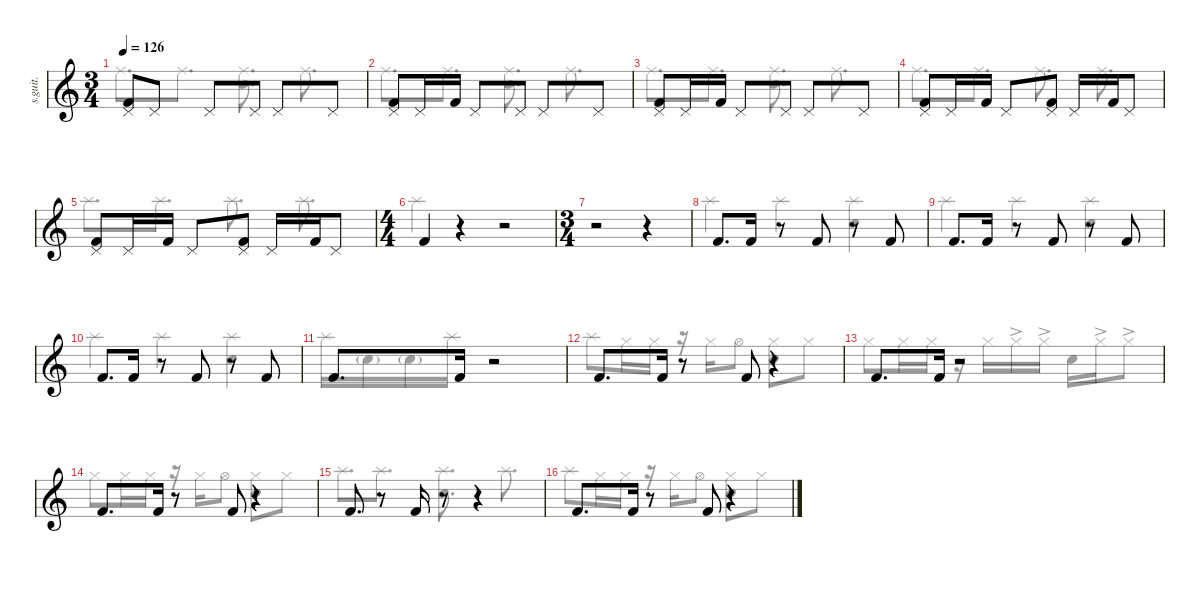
\defaultSystemsLayout 4
\hideDynamics
\bracketExtendMode nobrackets
\track ("Percussion" "s.guit.") {instrument percussion}
\staff {score}
\articulation defaults
\voice
\ts (3 4)
\tempo 126
\clef g2
\ks c
("Pedal Hi-Hat (hit)" "Kick (hit) 2").8{lyrics (0 "") lyrics (1 "") lyrics (2 "") lyrics (3 "") lyrics (4 "") dy mf} "Pedal Hi-Hat (hit)".8{lyrics (0 "") lyrics (1 "") lyrics (2 "") lyrics (3 "") lyrics (4 "")} "Pedal Hi-Hat (hit)".8{lyrics (0 "") lyrics (1 "") lyrics (2 "") lyrics (3 "") lyrics (4 "")} "Pedal Hi-Hat (hit)".8{lyrics (0 "") lyrics (1 "") lyrics (2 "") lyrics (3 "") lyrics (4 "")} "Pedal Hi-Hat (hit)".8{lyrics (0 "") lyrics (1 "") lyrics (2 "") lyrics (3 "") lyrics (4 "")} "Pedal Hi-Hat (hit)".8{lyrics (0 "") lyrics (1 "") lyrics (2 "") lyrics (3 "") lyrics (4 "")} |
("Pedal Hi-Hat (hit)" "Kick (hit) 2").8{lyrics (0 "") lyrics (1 "") lyrics (2 "") lyrics (3 "") lyrics (4 "")} "Pedal Hi-Hat (hit)".16{lyrics (0 "") lyrics (1 "") lyrics (2 "") lyrics (3 "") lyrics (4 "")} "Kick (hit) 2".16{lyrics (0 "") lyrics (1 "") lyrics (2 "") lyrics (3 "") lyrics (4 "")} "Pedal Hi-Hat (hit)".8{lyrics (0 "") lyrics (1 "") lyrics (2 "") lyrics (3 "") lyrics (4 "")} "Pedal Hi-Hat (hit)".8{lyrics (0 "") lyrics (1 "") lyrics (2 "") lyrics (3 "") lyrics (4 "")} "Pedal Hi-Hat (hit)".8{lyrics (0 "") lyrics (1 "") lyrics (2 "") lyrics (3 "") lyrics (4 "")} "Pedal Hi-Hat (hit)".8{lyrics (0 "") lyrics (1 "") lyrics (2 "") lyrics (3 "") lyrics (4 "")} |
("Pedal Hi-Hat (hit)" "Kick (hit) 2").8{lyrics (0 "") lyrics (1 "") lyrics (2 "") lyrics (3 "") lyrics (4 "")} "Pedal Hi-Hat (hit)".16{lyrics (0 "") lyrics (1 "") lyrics (2 "") lyrics (3 "") lyrics (4 "")} "Kick (hit) 2".16{lyrics (0 "") lyrics (1 "") lyrics (2 "") lyrics (3 "") lyrics (4 "")} "Pedal Hi-Hat (hit)".8{lyrics (0 "") lyrics (1 "") lyrics (2 "") lyrics (3 "") lyrics (4 "")} "Pedal Hi-Hat (hit)".8{lyrics (0 "") lyrics (1 "") lyrics (2 "") lyrics (3 "") lyrics (4 "")} "Pedal Hi-Hat (hit)".8{lyrics (0 "") lyrics (1 "") lyrics (2 "") lyrics (3 "") lyrics (4 "")} "Pedal Hi-Hat (hit)".8{lyrics (0 "") lyrics (1 "") lyrics (2 "") lyrics (3 "") lyrics (4 "")} |
("Pedal Hi-Hat (hit)" "Kick (hit) 2").8{lyrics (0 "") lyrics (1 "") lyrics (2 "") lyrics (3 "") lyrics (4 "")} "Pedal Hi-Hat (hit)".16{lyrics (0 "") lyrics (1 "") lyrics (2 "") lyrics (3 "") lyrics (4 "")} "Kick (hit) 2".16{lyrics (0 "") lyrics (1 "") lyrics (2 "") lyrics (3 "") lyrics (4 "")} "Pedal Hi-Hat (hit)".8{lyrics (0 "") lyrics (1 "") lyrics (2 "") lyrics (3 "") lyrics (4 "")} ("Pedal Hi-Hat (hit)" "Kick (hit) 2").8{lyrics (0 "") lyrics (1 "") lyrics (2 "") lyrics (3 "") lyrics (4 "")} "Pedal Hi-Hat (hit)".16{lyrics (0 "") lyrics (1 "") lyrics (2 "") lyrics (3 "") lyrics (4 "")} "Kick (hit) 2".16{lyrics (0 "") lyrics (1 "") lyrics (2 "") lyrics (3 "") lyrics (4 "")} "Pedal Hi-Hat (hit)".8{lyrics (0 "") lyrics (1 "") lyrics (2 "") lyrics (3 "") lyrics (4 "")} |
("Pedal Hi-Hat (hit)" "Kick (hit) 2").8{lyrics (0 "") lyrics (1 "") lyrics (2 "") lyrics (3 "") lyrics (4 "")} "Pedal Hi-Hat (hit)".16{lyrics (0 "") lyrics (1 "") lyrics (2 "") lyrics (3 "") lyrics (4 "")} "Kick (hit) 2".16{lyrics (0 "") lyrics (1 "") lyrics (2 "") lyrics (3 "") lyrics (4 "")} "Pedal Hi-Hat (hit)".8{lyrics (0 "") lyrics (1 "") lyrics (2 "") lyrics (3 "") lyrics (4 "")} ("Pedal Hi-Hat (hit)" "Kick (hit) 2").8{lyrics (0 "") lyrics (1 "") lyrics (2 "") lyrics (3 "") lyrics (4 "")} "Pedal Hi-Hat (hit)".16{lyrics (0 "") lyrics (1 "") lyrics (2 "") lyrics (3 "") lyrics (4 "")} "Kick (hit) 2".16{lyrics (0 "") lyrics (1 "") lyrics (2 "") lyrics (3 "") lyrics (4 "")} "Pedal Hi-Hat (hit)".8{lyrics (0 "") lyrics (1 "") lyrics (2 "") lyrics (3 "") lyrics (4 "")} |
\ts (4 4)
\beaming (8 2 2 2 2)
"Kick (hit) 2".4{lyrics (0 "") lyrics (1 "") lyrics (2 "") lyrics (3 "") lyrics (4 "")} r.4 r.2 |
\ts (3 4)
\beaming (8 2 2 2 2)
r.2 r.4 |
"Kick (hit) 2".8{d lyrics (0 "") lyrics (1 "") lyrics (2 "") lyrics (3 "") lyrics (4 "")} "Kick (hit) 2".16{lyrics (0 "") lyrics (1 "") lyrics (2 "") lyrics (3 "") lyrics (4 "")} r.8 "Kick (hit) 2".8{lyrics (0 "") lyrics (1 "") lyrics (2 "") lyrics (3 "") lyrics (4 "")} r.8 "Kick (hit) 2".8{lyrics (0 "") lyrics (1 "") lyrics (2 "") lyrics (3 "") lyrics (4 "")} |
"Kick (hit) 2".8{d lyrics (0 "") lyrics (1 "") lyrics (2 "") lyrics (3 "") lyrics (4 "")} "Kick (hit) 2".16{lyrics (0 "") lyrics (1 "") lyrics (2 "") lyrics (3 "") lyrics (4 "")} r.8 "Kick (hit) 2".8{lyrics (0 "") lyrics (1 "") lyrics (2 "") lyrics (3 "") lyrics (4 "")} r.8 "Kick (hit) 2".8{lyrics (0 "") lyrics (1 "") lyrics (2 "") lyrics (3 "") lyrics (4 "")} |
"Kick (hit) 2".8{d lyrics (0 "") lyrics (1 "") lyrics (2 "") lyrics (3 "") lyrics (4 "")} "Kick (hit) 2".16{lyrics (0 "") lyrics (1 "") lyrics (2 "") lyrics (3 "") lyrics (4 "")} r.8 "Kick (hit) 2".8{lyrics (0 "") lyrics (1 "") lyrics (2 "") lyrics (3 "") lyrics (4 "")} r.8 "Kick (hit) 2".8{lyrics (0 "") lyrics (1 "") lyrics (2 "") lyrics (3 "") lyrics (4 "")} |
"Kick (hit) 2".8{d lyrics (0 "") lyrics (1 "") lyrics (2 "") lyrics (3 "") lyrics (4 "")} "Kick (hit) 2".16{lyrics (0 "") lyrics (1 "") lyrics (2 "") lyrics (3 "") lyrics (4 "")} r.2 |
"Kick (hit) 2".8{d lyrics (0 "") lyrics (1 "") lyrics (2 "") lyrics (3 "") lyrics (4 "")} "Kick (hit) 2".16{lyrics (0 "") lyrics (1 "") lyrics (2 "") lyrics (3 "") lyrics (4 "")} r.8 "Kick (hit) 2".8{lyrics (0 "") lyrics (1 "") lyrics (2 "") lyrics (3 "") lyrics (4 "")} r.4 |
"Kick (hit) 2".8{d lyrics (0 "") lyrics (1 "") lyrics (2 "") lyrics (3 "") lyrics (4 "")} "Kick (hit) 2".16{lyrics (0 "") lyrics (1 "") lyrics (2 "") lyrics (3 "") lyrics (4 "")} r.2 |
"Kick (hit) 2".8{d lyrics (0 "") lyrics (1 "") lyrics (2 "") lyrics (3 "") lyrics (4 "")} "Kick (hit) 2".16{lyrics (0 "") lyrics (1 "") lyrics (2 "") lyrics (3 "") lyrics (4 "")} r.8 "Kick (hit) 2".8{lyrics (0 "") lyrics (1 "") lyrics (2 "") lyrics (3 "") lyrics (4 "")} r.4 |
"Kick (hit) 2".8{d lyrics (0 "") lyrics (1 "") lyrics (2 "") lyrics (3 "") lyrics (4 "")} r.8 "Kick (hit) 2".16{lyrics (0 "") lyrics (1 "") lyrics (2 "") lyrics (3 "") lyrics (4 "")} r.8 r.4 |
"Kick (hit) 2".8{d lyrics (0 "") lyrics (1 "") lyrics (2 "") lyrics (3 "") lyrics (4 "")} "Kick (hit) 2".16{lyrics (0 "") lyrics (1 "") lyrics (2 "") lyrics (3 "") lyrics (4 "")} r.8 "Kick (hit) 2".8{lyrics (0 "") lyrics (1 "") lyrics (2 "") lyrics (3 "") lyrics (4 "")} r.4
\voice
\clef g2
\ottava regular
\simile none
\ks c "Ride (middle)".8{d lyrics (0 "") lyrics (1 "") lyrics (2 "") lyrics (3 "") lyrics (4 "") dy mf} "Ride (middle)".8{d lyrics (0 "") lyrics (1 "") lyrics (2 "") lyrics (3 "") lyrics (4 "")}
("Ride (middle)" "Snare (hit) 2").8{d lyrics (0 "") lyrics (1 "") lyrics (2 "") lyrics (3 "") lyrics (4 "")} "Ride (middle)".8{d lyrics (0 "") lyrics (1 "") lyrics (2 "") lyrics (3 "") lyrics (4 "")} |
"Ride (middle)".8{d lyrics (0 "") lyrics (1 "") lyrics (2 "") lyrics (3 "") lyrics (4 "")} "Ride (middle)".8{d lyrics (0 "") lyrics (1 "") lyrics (2 "") lyrics (3 "") lyrics (4 "")} ("Ride (middle)" "Snare (hit) 2").8{d lyrics (0 "") lyrics (1 "") lyrics (2 "") lyrics (3 "") lyrics (4 "")} "Ride (middle)".8{d lyrics (0 "") lyrics (1 "") lyrics (2 "") lyrics (3 "") lyrics (4 "")} |
"Ride (middle)".8{d lyrics (0 "") lyrics (1 "") lyrics (2 "") lyrics (3 "") lyrics (4 "")} "Ride (middle)".8{d lyrics (0 "") lyrics (1 "") lyrics (2 "") lyrics (3 "") lyrics (4 "")} ("Ride (middle)" "Snare (hit) 2").8{d lyrics (0 "") lyrics (1 "") lyrics (2 "") lyrics (3 "") lyrics (4 "")} "Ride (middle)".8{d lyrics (0 "") lyrics (1 "") lyrics (2 "") lyrics (3 "") lyrics (4 "")} |
"Ride (middle)".8{d lyrics (0 "") lyrics (1 "") lyrics (2 "") lyrics (3 "") lyrics (4 "")} "Ride (middle)".8{d lyrics (0 "") lyrics (1 "") lyrics (2 "") lyrics (3 "") lyrics (4 "")} "Ride (middle)".8{d lyrics (0 "") lyrics (1 "") lyrics (2 "") lyrics (3 "") lyrics (4 "")} "Ride (middle)".8{d lyrics (0 "") lyrics (1 "") lyrics (2 "") lyrics (3 "") lyrics (4 "")} |
"Splash (hit)".8{d lyrics (0 "") lyrics (1 "") lyrics (2 "") lyrics (3 "") lyrics (4 "")} "Splash (hit)".8{d lyrics (0 "") lyrics (1 "") lyrics (2 "") lyrics (3 "") lyrics (4 "")} "Splash (hit)".8{d lyrics (0 "") lyrics (1 "") lyrics (2 "") lyrics (3 "") lyrics (4 "")} "Splash (hit)".8{d lyrics (0 "") lyrics (1 "") lyrics (2 "") lyrics (3 "") lyrics (4 "")} |
"Splash (hit)".4{lyrics (0 "") lyrics (1 "") lyrics (2 "") lyrics (3 "") lyrics (4 "")} r.4 r.2 |
r.2 r.4 |
"Splash (hit)".4{lyrics (0 "") lyrics (1 "") lyrics (2 "") lyrics (3 "") lyrics (4 "")} "Splash (hit)".4{lyrics (0 "") lyrics (1 "") lyrics (2 "") lyrics (3 "") lyrics (4 "")} ("Splash (hit)" "Snare (hit) 2").4{lyrics (0 "") lyrics (1 "") lyrics (2 "") lyrics (3 "") lyrics (4 "")} |
"Splash (hit)".4{lyrics (0 "") lyrics (1 "") lyrics (2 "") lyrics (3 "") lyrics (4 "")} "Splash (hit)".4{lyrics (0 "") lyrics (1 "") lyrics (2 "") lyrics (3 "") lyrics (4 "")} ("Splash (hit)" "Snare (hit) 2").4{lyrics (0 "") lyrics (1 "") lyrics (2 "") lyrics (3 "") lyrics (4 "")} |
"Splash (hit)".4{lyrics (0 "") lyrics (1 "") lyrics (2 "") lyrics (3 "") lyrics (4 "")} "Splash (hit)".4{lyrics (0 "") lyrics (1 "") lyrics (2 "") lyrics (3 "") lyrics (4 "")} ("Splash (hit)" "Snare (hit) 2").4{lyrics (0 "") lyrics (1 "") lyrics (2 "") lyrics (3 "") lyrics (4 "")} |
"Splash (hit)".16{lyrics (0 "") lyrics (1 "") lyrics (2 "") lyrics (3 "") lyrics (4 "")} "Snare (hit) 2"{g}.16{lyrics (0 "") lyrics (1 "") lyrics (2 "") lyrics (3 "") lyrics (4 "")} "Snare (hit) 2"{g}.16{lyrics (0 "") lyrics (1 "") lyrics (2 "") lyrics (3 "") lyrics (4 "")} "Splash (hit)".16{lyrics (0 "") lyrics (1 "") lyrics (2 "") lyrics (3 "") lyrics (4 "")} r.2 |
"Splash (hit)".8{lyrics (0 "") lyrics (1 "") lyrics (2 "") lyrics (3 "") lyrics (4 "")} "Hi-Hat (closed)".16{lyrics (0 "") lyrics (1 "") lyrics (2 "") lyrics (3 "") lyrics (4 "")} "Hi-Hat (closed)".16{lyrics (0 "") lyrics (1 "") lyrics (2 "") lyrics (3 "") lyrics (4 "")} r.16 "Hi-Hat (closed)".16{lyrics (0 "") lyrics (1 "") lyrics (2 "") lyrics (3 "") lyrics (4 "")} "Hi-Hat (open)".8{lyrics (0 "") lyrics (1 "") lyrics (2 "") lyrics (3 "") lyrics (4 "")} ("Hi-Hat (closed)" "Snare (hit) 2").8{lyrics (0 "") lyrics (1 "") lyrics (2 "") lyrics (3 "") lyrics (4 "")} "Hi-Hat (closed)".8{lyrics (0 "") lyrics (1 "") lyrics (2 "") lyrics (3 "") lyrics (4 "")} |
"Hi-Hat (closed)".8{lyrics (0 "") lyrics (1 "") lyrics (2 "") lyrics (3 "") lyrics (4 "")} "Hi-Hat (closed)".16{lyrics (0 "") lyrics (1 "") lyrics (2 "") lyrics (3 "") lyrics (4 "")} "Hi-Hat (closed)".16{lyrics (0 "") lyrics (1 "") lyrics (2 "") lyrics (3 "") lyrics (4 "")} r.16 "Hi-Hat (closed)".16{lyrics (0 "") lyrics (1 "") lyrics (2 "") lyrics (3 "") lyrics (4 "")} "Hi-Hat (closed)"{ac}.16{lyrics (0 "") lyrics (1 "") lyrics (2 "") lyrics (3 "") lyrics (4 "")} "Hi-Hat (closed)"{ac}.16{lyrics (0 "") lyrics (1 "") lyrics (2 "") lyrics (3 "") lyrics (4 "")} "Snare (hit) 2".16{lyrics (0 "") lyrics (1 "") lyrics (2 "") lyrics (3 "") lyrics (4 "")} "Hi-Hat (closed)"{ac}.16{lyrics (0 "") lyrics (1 "") lyrics (2 "") lyrics (3 "") lyrics (4 "")} "Hi-Hat (closed)"{ac}.8{lyrics (0 "") lyrics (1 "") lyrics (2 "") lyrics (3 "") lyrics (4 "")} |
"Hi-Hat (closed)".8{lyrics (0 "") lyrics (1 "") lyrics (2 "") lyrics (3 "") lyrics (4 "")} "Hi-Hat (closed)".16{lyrics (0 "") lyrics (1 "") lyrics (2 "") lyrics (3 "") lyrics (4 "")} "Hi-Hat (closed)".16{lyrics (0 "") lyrics (1 "") lyrics (2 "") lyrics (3 "") lyrics (4 "")} r.16 "Hi-Hat (closed)".16{lyrics (0 "") lyrics (1 "") lyrics (2 "") lyrics (3 "") lyrics (4 "")} "Hi-Hat (open)".8{lyrics (0 "") lyrics (1 "") lyrics (2 "") lyrics (3 "") lyrics (4 "")} ("Hi-Hat (closed)" "Snare (hit) 2").8{lyrics (0 "") lyrics (1 "") lyrics (2 "") lyrics (3 "") lyrics (4 "")} "Hi-Hat (closed)".8{lyrics (0 "") lyrics (1 "") lyrics (2 "") lyrics (3 "") lyrics (4 "")} |
"Splash (hit)".8{d lyrics (0 "") lyrics (1 "") lyrics (2 "") lyrics (3 "") lyrics (4 "")} "Splash (hit)".8{d lyrics (0 "") lyrics (1 "") lyrics (2 "") lyrics (3 "") lyrics (4 "")} ("Splash (hit)" "Snare (hit) 2").8{d lyrics (0 "") lyrics (1 "") lyrics (2 "") lyrics (3 "") lyrics (4 "")} "Splash (hit)".8{d lyrics (0 "") lyrics (1 "") lyrics (2 "") lyrics (3 "") lyrics (4 "")} |
"Splash (hit)".8{lyrics (0 "") lyrics (1 "") lyrics (2 "") lyrics (3 "") lyrics (4 "")} "Hi-Hat (closed)".16{lyrics (0 "") lyrics (1 "") lyrics (2 "") lyrics (3 "") lyrics (4 "")} "Hi-Hat (closed)".16{lyrics (0 "") lyrics (1 "") lyrics (2 "") lyrics (3 "") lyrics (4 "")} r.16 "Hi-Hat (closed)".16{lyrics (0 "") lyrics (1 "") lyrics (2 "") lyrics (3 "") lyrics (4 "")} "Hi-Hat (open)".8{lyrics (0 "") lyrics (1 "") lyrics (2 "") lyrics (3 "") lyrics (4 "")} ("Hi-Hat (closed)" "Snare (hit) 2").8{lyrics (0 "") lyrics (1 "") lyrics (2 "") lyrics (3 "") lyrics (4 "")} "Hi-Hat (closed)".8{lyrics (0 "") lyrics (1 "") lyrics (2 "") lyrics (3 "") lyrics (4 "")}
